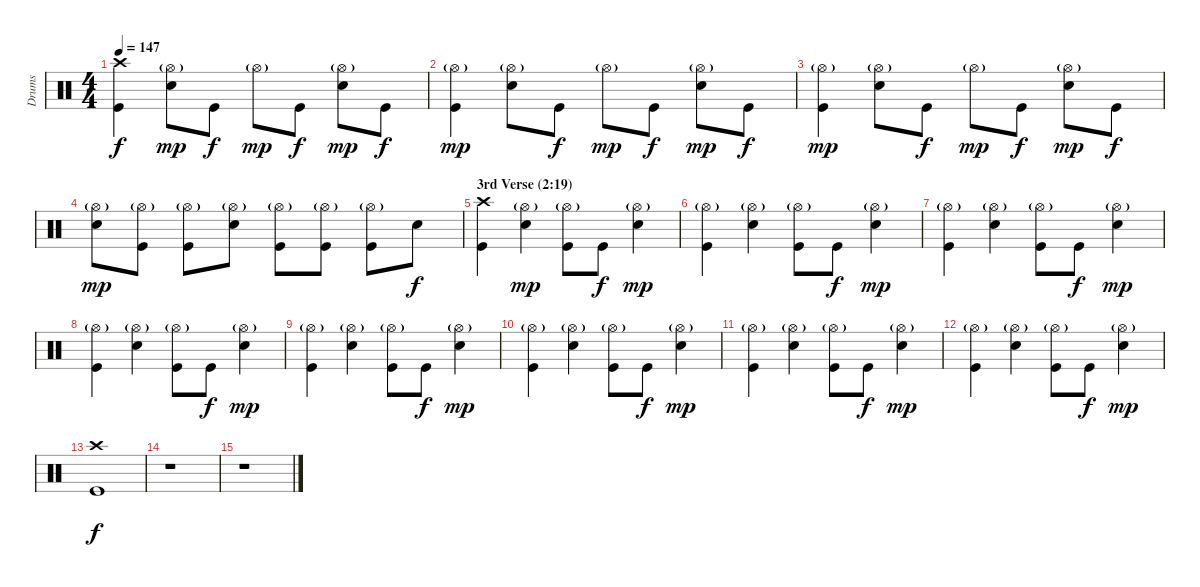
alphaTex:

\track ("Drums" "Drums") {instrument percussion}
\staff {score}
\articulation defaults
\ts (4 4)
\tempo 147
\clef neutral
\ks c
("Crash high (hit)" "Kick (hit)").4{dy f} ("Hi-Hat (open)"{g} "Snare (hit) 2").8{dy mp} "Kick (hit)".8{dy f} "Hi-Hat (open)"{g}.8{dy mp} "Kick (hit)".8{dy f} ("Hi-Hat (open)"{g} "Snare (hit) 2").8{dy mp} "Kick (hit)".8{dy f} |
("Hi-Hat (open)"{g} "Kick (hit)").4{dy mp} ("Hi-Hat (open)"{g} "Snare (hit) 2").8 "Kick (hit)".8{dy f} "Hi-Hat (open)"{g}.8{dy mp} "Kick (hit)".8{dy f} ("Hi-Hat (open)"{g} "Snare (hit) 2").8{dy mp} "Kick (hit)".8{dy f} |
("Hi-Hat (open)"{g} "Kick (hit)").4{dy mp} ("Hi-Hat (open)"{g} "Snare (hit) 2").8 "Kick (hit)".8{dy f} "Hi-Hat (open)"{g}.8{dy mp} "Kick (hit)".8{dy f} ("Hi-Hat (open)"{g} "Snare (hit) 2").8{dy mp} "Kick (hit)".8{dy f} |
("Hi-Hat (open)"{g} "Snare (hit) 2").8{dy mp} ("Hi-Hat (open)"{g} "Kick (hit)").8 ("Hi-Hat (open)"{g} "Kick (hit)").8 ("Hi-Hat (open)"{g} "Snare (hit) 2").8 ("Hi-Hat (open)"{g} "Kick (hit)").8 ("Hi-Hat (open)"{g} "Kick (hit)").8 ("Hi-Hat (open)"{g} "Kick (hit)").8 "Snare (hit) 2".8{dy f} |
\section ("" "3rd Verse (2:19)")
("Crash high (hit)" "Kick (hit)").4 ("Hi-Hat (open)"{g} "Snare (hit) 2").4{dy mp} ("Hi-Hat (open)"{g} "Kick (hit)").8 "Kick (hit)".8{dy f} ("Hi-Hat (open)"{g} "Snare (hit) 2").4{dy mp} |
("Hi-Hat (open)"{g} "Kick (hit)").4 ("Hi-Hat (open)"{g} "Snare (hit) 2").4 ("Hi-Hat (open)"{g} "Kick (hit)").8 "Kick (hit)".8{dy f} ("Hi-Hat (open)"{g} "Snare (hit) 2").4{dy mp} |
("Hi-Hat (open)"{g} "Kick (hit)").4 ("Hi-Hat (open)"{g} "Snare (hit) 2").4 ("Hi-Hat (open)"{g} "Kick (hit)").8 "Kick (hit)".8{dy f} ("Hi-Hat (open)"{g} "Snare (hit) 2").4{dy mp} |
("Hi-Hat (open)"{g} "Kick (hit)").4 ("Hi-Hat (open)"{g} "Snare (hit) 2").4 ("Hi-Hat (open)"{g} "Kick (hit)").8 "Kick (hit)".8{dy f} ("Hi-Hat (open)"{g} "Snare (hit) 2").4{dy mp} |
("Hi-Hat (open)"{g} "Kick (hit)").4 ("Hi-Hat (open)"{g} "Snare (hit) 2").4 ("Hi-Hat (open)"{g} "Kick (hit)").8 "Kick (hit)".8{dy f} ("Hi-Hat (open)"{g} "Snare (hit) 2").4{dy mp} |
("Hi-Hat (open)"{g} "Kick (hit)").4 ("Hi-Hat (open)"{g} "Snare (hit) 2").4 ("Hi-Hat (open)"{g} "Kick (hit)").8 "Kick (hit)".8{dy f} ("Hi-Hat (open)"{g} "Snare (hit) 2").4{dy mp} |
("Hi-Hat (open)"{g} "Kick (hit)").4 ("Hi-Hat (open)"{g} "Snare (hit) 2").4 ("Hi-Hat (open)"{g} "Kick (hit)").8 "Kick (hit)".8{dy f} ("Hi-Hat (open)"{g} "Snare (hit) 2").4{dy mp} |
("Hi-Hat (open)"{g} "Kick (hit)").4 ("Hi-Hat (open)"{g} "Snare (hit) 2").4 ("Hi-Hat (open)"{g} "Kick (hit)").8 "Kick (hit)".8{dy f} ("Hi-Hat (open)"{g} "Snare (hit) 2").4{dy mp} |
("Crash high (hit)" "Kick (hit)").1{dy f} |
r.1 |
r.1
